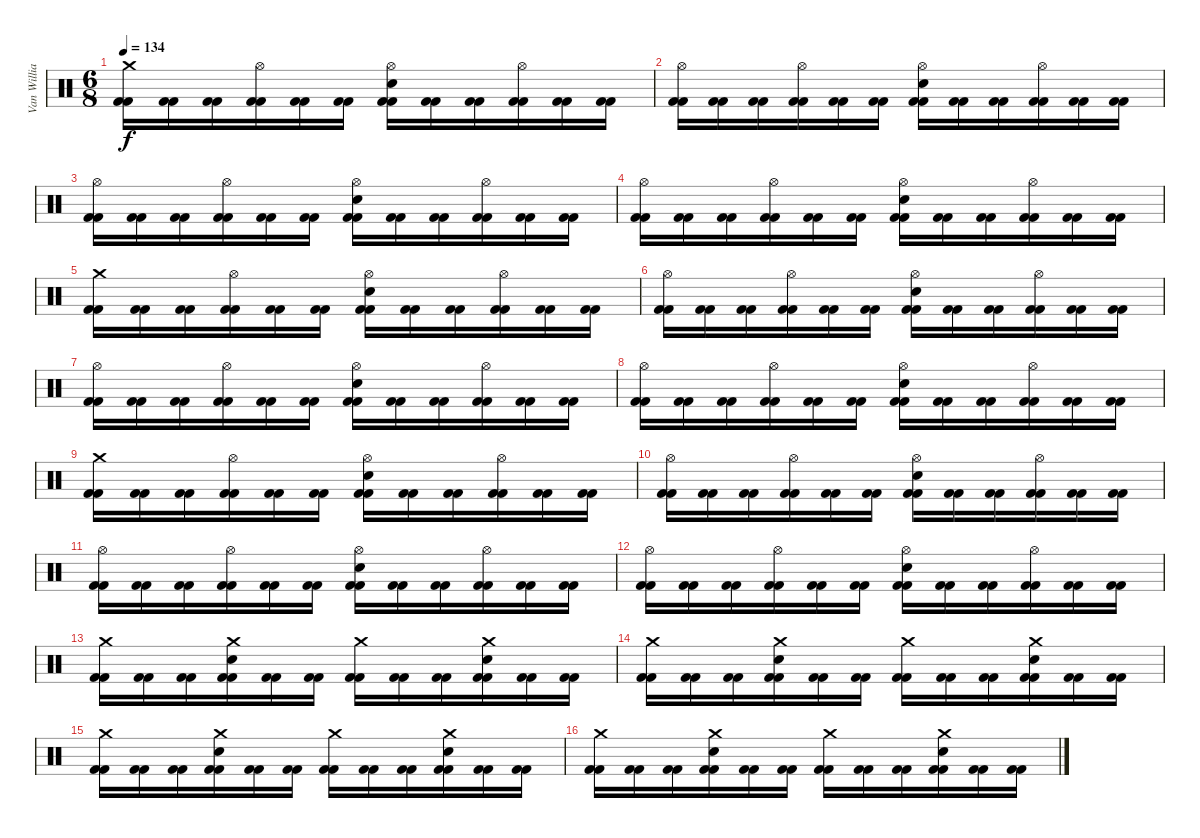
\track ("Van Williams" "Van Willia") {instrument percussion}
\staff {score}
\articulation defaults
\ts (6 8)
\tempo 134
\clef neutral
\ks c
("Crash medium (hit)" "Kick (hit) 2" "Kick (hit) 2").16{dy f} ("Kick (hit) 2" "Kick (hit) 2").16 ("Kick (hit) 2" "Kick (hit) 2").16 ("Hi-Hat (open)" "Kick (hit) 2" "Kick (hit) 2").16 ("Kick (hit) 2" "Kick (hit) 2").16 ("Kick (hit) 2" "Kick (hit) 2").16 ("Hi-Hat (open)" "Electric Snare (hit)" "Kick (hit) 2" "Kick (hit) 2").16 ("Kick (hit) 2" "Kick (hit) 2").16 ("Kick (hit) 2" "Kick (hit) 2").16 ("Hi-Hat (open)" "Kick (hit) 2" "Kick (hit) 2").16 ("Kick (hit) 2" "Kick (hit) 2").16 ("Kick (hit) 2" "Kick (hit) 2").16 |
("Hi-Hat (open)" "Kick (hit) 2" "Kick (hit) 2").16 ("Kick (hit) 2" "Kick (hit) 2").16 ("Kick (hit) 2" "Kick (hit) 2").16 ("Hi-Hat (open)" "Kick (hit) 2" "Kick (hit) 2").16 ("Kick (hit) 2" "Kick (hit) 2").16 ("Kick (hit) 2" "Kick (hit) 2").16 ("Hi-Hat (open)" "Electric Snare (hit)" "Kick (hit) 2" "Kick (hit) 2").16 ("Kick (hit) 2" "Kick (hit) 2").16 ("Kick (hit) 2" "Kick (hit) 2").16 ("Hi-Hat (open)" "Kick (hit) 2" "Kick (hit) 2").16 ("Kick (hit) 2" "Kick (hit) 2").16 ("Kick (hit) 2" "Kick (hit) 2").16 |
("Hi-Hat (open)" "Kick (hit) 2" "Kick (hit) 2").16 ("Kick (hit) 2" "Kick (hit) 2").16 ("Kick (hit) 2" "Kick (hit) 2").16 ("Hi-Hat (open)" "Kick (hit) 2" "Kick (hit) 2").16 ("Kick (hit) 2" "Kick (hit) 2").16 ("Kick (hit) 2" "Kick (hit) 2").16 ("Hi-Hat (open)" "Electric Snare (hit)" "Kick (hit) 2" "Kick (hit) 2").16 ("Kick (hit) 2" "Kick (hit) 2").16 ("Kick (hit) 2" "Kick (hit) 2").16 ("Hi-Hat (open)" "Kick (hit) 2" "Kick (hit) 2").16 ("Kick (hit) 2" "Kick (hit) 2").16 ("Kick (hit) 2" "Kick (hit) 2").16 |
("Hi-Hat (open)" "Kick (hit) 2" "Kick (hit) 2").16 ("Kick (hit) 2" "Kick (hit) 2").16 ("Kick (hit) 2" "Kick (hit) 2").16 ("Hi-Hat (open)" "Kick (hit) 2" "Kick (hit) 2").16 ("Kick (hit) 2" "Kick (hit) 2").16 ("Kick (hit) 2" "Kick (hit) 2").16 ("Hi-Hat (open)" "Electric Snare (hit)" "Kick (hit) 2" "Kick (hit) 2").16 ("Kick (hit) 2" "Kick (hit) 2").16 ("Kick (hit) 2" "Kick (hit) 2").16 ("Hi-Hat (open)" "Kick (hit) 2" "Kick (hit) 2").16 ("Kick (hit) 2" "Kick (hit) 2").16 ("Kick (hit) 2" "Kick (hit) 2").16 |
("Crash medium (hit)" "Kick (hit) 2" "Kick (hit) 2").16 ("Kick (hit) 2" "Kick (hit) 2").16 ("Kick (hit) 2" "Kick (hit) 2").16 ("Hi-Hat (open)" "Kick (hit) 2" "Kick (hit) 2").16 ("Kick (hit) 2" "Kick (hit) 2").16 ("Kick (hit) 2" "Kick (hit) 2").16 ("Hi-Hat (open)" "Electric Snare (hit)" "Kick (hit) 2" "Kick (hit) 2").16 ("Kick (hit) 2" "Kick (hit) 2").16 ("Kick (hit) 2" "Kick (hit) 2").16 ("Hi-Hat (open)" "Kick (hit) 2" "Kick (hit) 2").16 ("Kick (hit) 2" "Kick (hit) 2").16 ("Kick (hit) 2" "Kick (hit) 2").16 |
("Hi-Hat (open)" "Kick (hit) 2" "Kick (hit) 2").16 ("Kick (hit) 2" "Kick (hit) 2").16 ("Kick (hit) 2" "Kick (hit) 2").16 ("Hi-Hat (open)" "Kick (hit) 2" "Kick (hit) 2").16 ("Kick (hit) 2" "Kick (hit) 2").16 ("Kick (hit) 2" "Kick (hit) 2").16 ("Hi-Hat (open)" "Electric Snare (hit)" "Kick (hit) 2" "Kick (hit) 2").16 ("Kick (hit) 2" "Kick (hit) 2").16 ("Kick (hit) 2" "Kick (hit) 2").16 ("Hi-Hat (open)" "Kick (hit) 2" "Kick (hit) 2").16 ("Kick (hit) 2" "Kick (hit) 2").16 ("Kick (hit) 2" "Kick (hit) 2").16 |
("Hi-Hat (open)" "Kick (hit) 2" "Kick (hit) 2").16 ("Kick (hit) 2" "Kick (hit) 2").16 ("Kick (hit) 2" "Kick (hit) 2").16 ("Hi-Hat (open)" "Kick (hit) 2" "Kick (hit) 2").16 ("Kick (hit) 2" "Kick (hit) 2").16 ("Kick (hit) 2" "Kick (hit) 2").16 ("Hi-Hat (open)" "Electric Snare (hit)" "Kick (hit) 2" "Kick (hit) 2").16 ("Kick (hit) 2" "Kick (hit) 2").16 ("Kick (hit) 2" "Kick (hit) 2").16 ("Hi-Hat (open)" "Kick (hit) 2" "Kick (hit) 2").16 ("Kick (hit) 2" "Kick (hit) 2").16 ("Kick (hit) 2" "Kick (hit) 2").16 |
("Hi-Hat (open)" "Kick (hit) 2" "Kick (hit) 2").16 ("Kick (hit) 2" "Kick (hit) 2").16 ("Kick (hit) 2" "Kick (hit) 2").16 ("Hi-Hat (open)" "Kick (hit) 2" "Kick (hit) 2").16 ("Kick (hit) 2" "Kick (hit) 2").16 ("Kick (hit) 2" "Kick (hit) 2").16 ("Hi-Hat (open)" "Electric Snare (hit)" "Kick (hit) 2" "Kick (hit) 2").16 ("Kick (hit) 2" "Kick (hit) 2").16 ("Kick (hit) 2" "Kick (hit) 2").16 ("Hi-Hat (open)" "Kick (hit) 2" "Kick (hit) 2").16 ("Kick (hit) 2" "Kick (hit) 2").16 ("Kick (hit) 2" "Kick (hit) 2").16 |
("Crash medium (hit)" "Kick (hit) 2" "Kick (hit) 2").16 ("Kick (hit) 2" "Kick (hit) 2").16 ("Kick (hit) 2" "Kick (hit) 2").16 ("Hi-Hat (open)" "Kick (hit) 2" "Kick (hit) 2").16 ("Kick (hit) 2" "Kick (hit) 2").16 ("Kick (hit) 2" "Kick (hit) 2").16 ("Hi-Hat (open)" "Electric Snare (hit)" "Kick (hit) 2" "Kick (hit) 2").16 ("Kick (hit) 2" "Kick (hit) 2").16 ("Kick (hit) 2" "Kick (hit) 2").16 ("Hi-Hat (open)" "Kick (hit) 2" "Kick (hit) 2").16 ("Kick (hit) 2" "Kick (hit) 2").16 ("Kick (hit) 2" "Kick (hit) 2").16 |
("Hi-Hat (open)" "Kick (hit) 2" "Kick (hit) 2").16 ("Kick (hit) 2" "Kick (hit) 2").16 ("Kick (hit) 2" "Kick (hit) 2").16 ("Hi-Hat (open)" "Kick (hit) 2" "Kick (hit) 2").16 ("Kick (hit) 2" "Kick (hit) 2").16 ("Kick (hit) 2" "Kick (hit) 2").16 ("Hi-Hat (open)" "Electric Snare (hit)" "Kick (hit) 2" "Kick (hit) 2").16 ("Kick (hit) 2" "Kick (hit) 2").16 ("Kick (hit) 2" "Kick (hit) 2").16 ("Hi-Hat (open)" "Kick (hit) 2" "Kick (hit) 2").16 ("Kick (hit) 2" "Kick (hit) 2").16 ("Kick (hit) 2" "Kick (hit) 2").16 |
("Hi-Hat (open)" "Kick (hit) 2" "Kick (hit) 2").16 ("Kick (hit) 2" "Kick (hit) 2").16 ("Kick (hit) 2" "Kick (hit) 2").16 ("Hi-Hat (open)" "Kick (hit) 2" "Kick (hit) 2").16 ("Kick (hit) 2" "Kick (hit) 2").16 ("Kick (hit) 2" "Kick (hit) 2").16 ("Hi-Hat (open)" "Electric Snare (hit)" "Kick (hit) 2" "Kick (hit) 2").16 ("Kick (hit) 2" "Kick (hit) 2").16 ("Kick (hit) 2" "Kick (hit) 2").16 ("Hi-Hat (open)" "Kick (hit) 2" "Kick (hit) 2").16 ("Kick (hit) 2" "Kick (hit) 2").16 ("Kick (hit) 2" "Kick (hit) 2").16 |
("Hi-Hat (open)" "Kick (hit) 2" "Kick (hit) 2").16 ("Kick (hit) 2" "Kick (hit) 2").16 ("Kick (hit) 2" "Kick (hit) 2").16 ("Hi-Hat (open)" "Kick (hit) 2" "Kick (hit) 2").16 ("Kick (hit) 2" "Kick (hit) 2").16 ("Kick (hit) 2" "Kick (hit) 2").16 ("Hi-Hat (open)" "Electric Snare (hit)" "Kick (hit) 2" "Kick (hit) 2").16 ("Kick (hit) 2" "Kick (hit) 2").16 ("Kick (hit) 2" "Kick (hit) 2").16 ("Hi-Hat (open)" "Kick (hit) 2" "Kick (hit) 2").16 ("Kick (hit) 2" "Kick (hit) 2").16 ("Kick (hit) 2" "Kick (hit) 2").16 |
("Crash medium (hit)" "Kick (hit) 2" "Kick (hit) 2").16 ("Kick (hit) 2" "Kick (hit) 2").16 ("Kick (hit) 2" "Kick (hit) 2").16 ("Crash medium (hit)" "Electric Snare (hit)" "Kick (hit) 2" "Kick (hit) 2").16 ("Kick (hit) 2" "Kick (hit) 2").16 ("Kick (hit) 2" "Kick (hit) 2").16 ("Crash medium (hit)" "Kick (hit) 2" "Kick (hit) 2").16 ("Kick (hit) 2" "Kick (hit) 2").16 ("Kick (hit) 2" "Kick (hit) 2").16 ("Crash medium (hit)" "Electric Snare (hit)" "Kick (hit) 2" "Kick (hit) 2").16 ("Kick (hit) 2" "Kick (hit) 2").16 ("Kick (hit) 2" "Kick (hit) 2").16 |
("Crash medium (hit)" "Kick (hit) 2" "Kick (hit) 2").16 ("Kick (hit) 2" "Kick (hit) 2").16 ("Kick (hit) 2" "Kick (hit) 2").16 ("Crash medium (hit)" "Electric Snare (hit)" "Kick (hit) 2" "Kick (hit) 2").16 ("Kick (hit) 2" "Kick (hit) 2").16 ("Kick (hit) 2" "Kick (hit) 2").16 ("Crash medium (hit)" "Kick (hit) 2" "Kick (hit) 2").16 ("Kick (hit) 2" "Kick (hit) 2").16 ("Kick (hit) 2" "Kick (hit) 2").16 ("Crash medium (hit)" "Electric Snare (hit)" "Kick (hit) 2" "Kick (hit) 2").16 ("Kick (hit) 2" "Kick (hit) 2").16 ("Kick (hit) 2" "Kick (hit) 2").16 |
("Crash medium (hit)" "Kick (hit) 2" "Kick (hit) 2").16 ("Kick (hit) 2" "Kick (hit) 2").16 ("Kick (hit) 2" "Kick (hit) 2").16 ("Crash medium (hit)" "Electric Snare (hit)" "Kick (hit) 2" "Kick (hit) 2").16 ("Kick (hit) 2" "Kick (hit) 2").16 ("Kick (hit) 2" "Kick (hit) 2").16 ("Crash medium (hit)" "Kick (hit) 2" "Kick (hit) 2").16 ("Kick (hit) 2" "Kick (hit) 2").16 ("Kick (hit) 2" "Kick (hit) 2").16 ("Crash medium (hit)" "Electric Snare (hit)" "Kick (hit) 2" "Kick (hit) 2").16 ("Kick (hit) 2" "Kick (hit) 2").16 ("Kick (hit) 2" "Kick (hit) 2").16 |
("Crash medium (hit)" "Kick (hit) 2" "Kick (hit) 2").16 ("Kick (hit) 2" "Kick (hit) 2").16 ("Kick (hit) 2" "Kick (hit) 2").16 ("Crash medium (hit)" "Electric Snare (hit)" "Kick (hit) 2" "Kick (hit) 2").16 ("Kick (hit) 2" "Kick (hit) 2").16 ("Kick (hit) 2" "Kick (hit) 2").16 ("Crash medium (hit)" "Kick (hit) 2" "Kick (hit) 2").16 ("Kick (hit) 2" "Kick (hit) 2").16 ("Kick (hit) 2" "Kick (hit) 2").16 ("Crash medium (hit)" "Electric Snare (hit)" "Kick (hit) 2" "Kick (hit) 2").16 ("Kick (hit) 2" "Kick (hit) 2").16 ("Kick (hit) 2" "Kick (hit) 2").16
